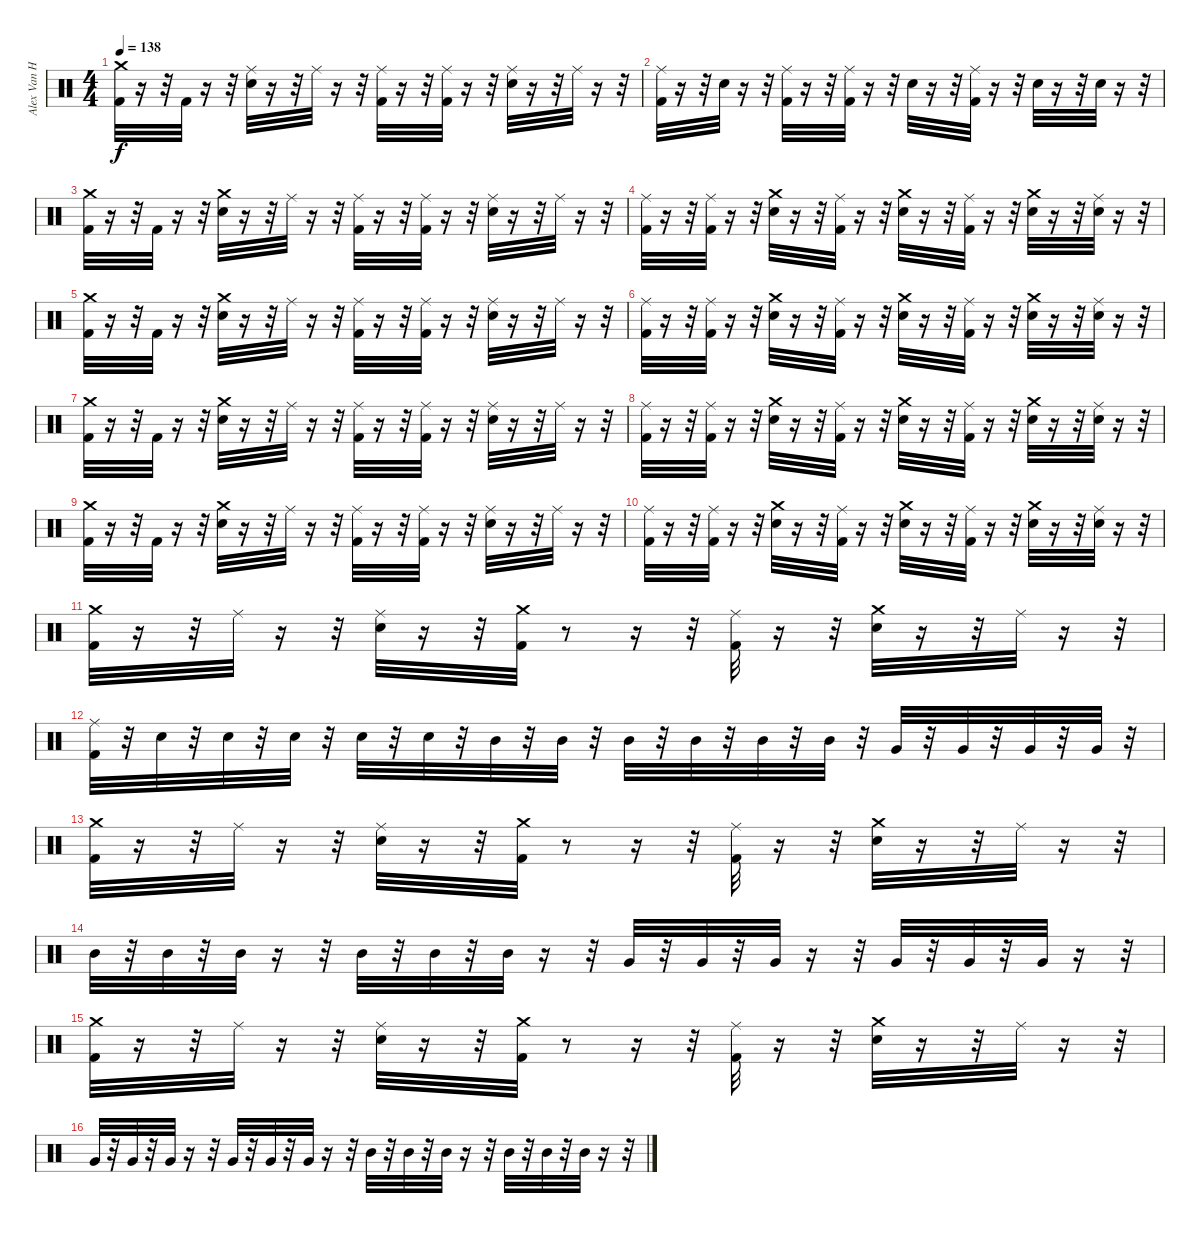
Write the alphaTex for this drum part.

\track ("Alex Van Halen (Drums)" "Alex Van H") {instrument percussion}
\staff {score}
\articulation defaults
\ts (4 4)
\tempo 138
\clef neutral
\ks c
("Kick (hit) 2" "Crash medium (hit)").32{dy f} r.16 r.32 "Kick (hit) 2".32 r.16 r.32 ("Snare (hit) 2" "Ride (middle)").32 r.16 r.32 "Ride (middle)".32 r.16 r.32 ("Kick (hit) 2" "Ride (middle)").32 r.16 r.32 ("Kick (hit) 2" "Ride (middle)").32 r.16 r.32 ("Snare (hit) 2" "Ride (middle)").32 r.16 r.32 "Ride (middle)".32 r.16 r.32 |
("Kick (hit) 2" "Ride (middle)").32 r.16 r.32 "Snare (hit) 2".32 r.16 r.32 ("Kick (hit) 2" "Ride (middle)").32 r.16 r.32 ("Kick (hit) 2" "Ride (middle)").32 r.16 r.32 "Snare (hit) 2".32 r.16 r.32 ("Kick (hit) 2" "Ride (middle)").32 r.16 r.32 "Snare (hit) 2".32 r.16 r.32 "Snare (hit) 2".32 r.16 r.32 |
("Kick (hit) 2" "Crash medium (hit)").32 r.16 r.32 "Kick (hit) 2".32 r.16 r.32 ("Snare (hit) 2" "Crash medium (hit)").32 r.16 r.32 "Ride (middle)".32 r.16 r.32 ("Kick (hit) 2" "Ride (middle)").32 r.16 r.32 ("Kick (hit) 2" "Ride (middle)").32 r.16 r.32 ("Snare (hit) 2" "Ride (middle)").32 r.16 r.32 "Ride (middle)".32 r.16 r.32 |
("Kick (hit) 2" "Ride (middle)").32 r.16 r.32 ("Kick (hit) 2" "Ride (middle)").32 r.16 r.32 ("Snare (hit) 2" "Crash medium (hit)").32 r.16 r.32 ("Kick (hit) 2" "Ride (middle)").32 r.16 r.32 ("Snare (hit) 2" "Crash medium (hit)").32 r.16 r.32 ("Kick (hit) 2" "Ride (middle)").32 r.16 r.32 ("Snare (hit) 2" "Crash medium (hit)").32 r.16 r.32 ("Snare (hit) 2" "Ride (middle)").32 r.16 r.32 |
("Kick (hit) 2" "Crash medium (hit)").32 r.16 r.32 "Kick (hit) 2".32 r.16 r.32 ("Snare (hit) 2" "Crash medium (hit)").32 r.16 r.32 "Ride (middle)".32 r.16 r.32 ("Kick (hit) 2" "Ride (middle)").32 r.16 r.32 ("Kick (hit) 2" "Ride (middle)").32 r.16 r.32 ("Snare (hit) 2" "Ride (middle)").32 r.16 r.32 "Ride (middle)".32 r.16 r.32 |
("Kick (hit) 2" "Ride (middle)").32 r.16 r.32 ("Kick (hit) 2" "Ride (middle)").32 r.16 r.32 ("Snare (hit) 2" "Crash medium (hit)").32 r.16 r.32 ("Kick (hit) 2" "Ride (middle)").32 r.16 r.32 ("Snare (hit) 2" "Crash medium (hit)").32 r.16 r.32 ("Kick (hit) 2" "Ride (middle)").32 r.16 r.32 ("Snare (hit) 2" "Crash medium (hit)").32 r.16 r.32 ("Snare (hit) 2" "Ride (middle)").32 r.16 r.32 |
("Kick (hit) 2" "Crash medium (hit)").32 r.16 r.32 "Kick (hit) 2".32 r.16 r.32 ("Snare (hit) 2" "Crash medium (hit)").32 r.16 r.32 "Ride (middle)".32 r.16 r.32 ("Kick (hit) 2" "Ride (middle)").32 r.16 r.32 ("Kick (hit) 2" "Ride (middle)").32 r.16 r.32 ("Snare (hit) 2" "Ride (middle)").32 r.16 r.32 "Ride (middle)".32 r.16 r.32 |
("Kick (hit) 2" "Ride (middle)").32 r.16 r.32 ("Kick (hit) 2" "Ride (middle)").32 r.16 r.32 ("Snare (hit) 2" "Crash medium (hit)").32 r.16 r.32 ("Kick (hit) 2" "Ride (middle)").32 r.16 r.32 ("Snare (hit) 2" "Crash medium (hit)").32 r.16 r.32 ("Kick (hit) 2" "Ride (middle)").32 r.16 r.32 ("Snare (hit) 2" "Crash medium (hit)").32 r.16 r.32 ("Snare (hit) 2" "Ride (middle)").32 r.16 r.32 |
("Kick (hit) 2" "Crash medium (hit)").32 r.16 r.32 "Kick (hit) 2".32 r.16 r.32 ("Snare (hit) 2" "Crash medium (hit)").32 r.16 r.32 "Ride (middle)".32 r.16 r.32 ("Kick (hit) 2" "Ride (middle)").32 r.16 r.32 ("Kick (hit) 2" "Ride (middle)").32 r.16 r.32 ("Snare (hit) 2" "Ride (middle)").32 r.16 r.32 "Ride (middle)".32 r.16 r.32 |
("Kick (hit) 2" "Ride (middle)").32 r.16 r.32 ("Kick (hit) 2" "Ride (middle)").32 r.16 r.32 ("Snare (hit) 2" "Crash medium (hit)").32 r.16 r.32 ("Kick (hit) 2" "Ride (middle)").32 r.16 r.32 ("Snare (hit) 2" "Crash medium (hit)").32 r.16 r.32 ("Kick (hit) 2" "Ride (middle)").32 r.16 r.32 ("Snare (hit) 2" "Crash medium (hit)").32 r.16 r.32 ("Snare (hit) 2" "Ride (middle)").32 r.16 r.32 |
("Kick (hit) 2" "Crash medium (hit)").32 r.16 r.32 "Ride (middle)".32 r.16 r.32 ("Snare (hit) 2" "Ride (middle)").32 r.16 r.32 ("Kick (hit) 2" "Crash medium (hit)").32 r.8 r.16 r.32 ("Kick (hit) 2" "Ride (middle)").32 r.16 r.32 ("Snare (hit) 2" "Crash medium (hit)").32 r.16 r.32 "Ride (middle)".32 r.16 r.32 |
("Kick (hit) 2" "Ride (middle)").32 r.32 "Snare (hit) 2".32 r.32 "Snare (hit) 2".32 r.32 "Snare (hit) 2".32 r.32 "Snare (hit) 2".32 r.32 "Snare (hit) 2".32 r.32 "Mid Tom (hit)".32 r.32 "Mid Tom (hit)".32 r.32 "Mid Tom (hit)".32 r.32 "Mid Tom (hit)".32 r.32 "Mid Tom (hit)".32 r.32 "Mid Tom (hit)".32 r.32 "Very Low Tom (hit)".32 r.32 "Very Low Tom (hit)".32 r.32 "Very Low Tom (hit)".32 r.32 "Very Low Tom (hit)".32 r.32 |
("Kick (hit) 2" "Crash medium (hit)").32 r.16 r.32 "Ride (middle)".32 r.16 r.32 ("Snare (hit) 2" "Ride (middle)").32 r.16 r.32 ("Kick (hit) 2" "Crash medium (hit)").32 r.8 r.16 r.32 ("Kick (hit) 2" "Ride (middle)").32 r.16 r.32 ("Snare (hit) 2" "Crash medium (hit)").32 r.16 r.32 "Ride (middle)".32 r.16 r.32 |
"Mid Tom (hit)".32 r.32 "Mid Tom (hit)".32 r.32 "Mid Tom (hit)".32 r.16 r.32 "Mid Tom (hit)".32 r.32 "Mid Tom (hit)".32 r.32 "Mid Tom (hit)".32 r.16 r.32 "Very Low Tom (hit)".32 r.32 "Very Low Tom (hit)".32 r.32 "Very Low Tom (hit)".32 r.16 r.32 "Very Low Tom (hit)".32 r.32 "Very Low Tom (hit)".32 r.32 "Very Low Tom (hit)".32 r.16 r.32 |
("Kick (hit) 2" "Crash medium (hit)").32 r.16 r.32 "Ride (middle)".32 r.16 r.32 ("Snare (hit) 2" "Ride (middle)").32 r.16 r.32 ("Kick (hit) 2" "Crash medium (hit)").32 r.8 r.16 r.32 ("Kick (hit) 2" "Ride (middle)").32 r.16 r.32 ("Snare (hit) 2" "Crash medium (hit)").32 r.16 r.32 "Ride (middle)".32 r.16 r.32 |
"Very Low Tom (hit)".32 r.32 "Very Low Tom (hit)".32 r.32 "Very Low Tom (hit)".32 r.16 r.32 "Very Low Tom (hit)".32 r.32 "Very Low Tom (hit)".32 r.32 "Very Low Tom (hit)".32 r.16 r.32 "Mid Tom (hit)".32 r.32 "Mid Tom (hit)".32 r.32 "Mid Tom (hit)".32 r.16 r.32 "Mid Tom (hit)".32 r.32 "Mid Tom (hit)".32 r.32 "Mid Tom (hit)".32 r.16 r.32
